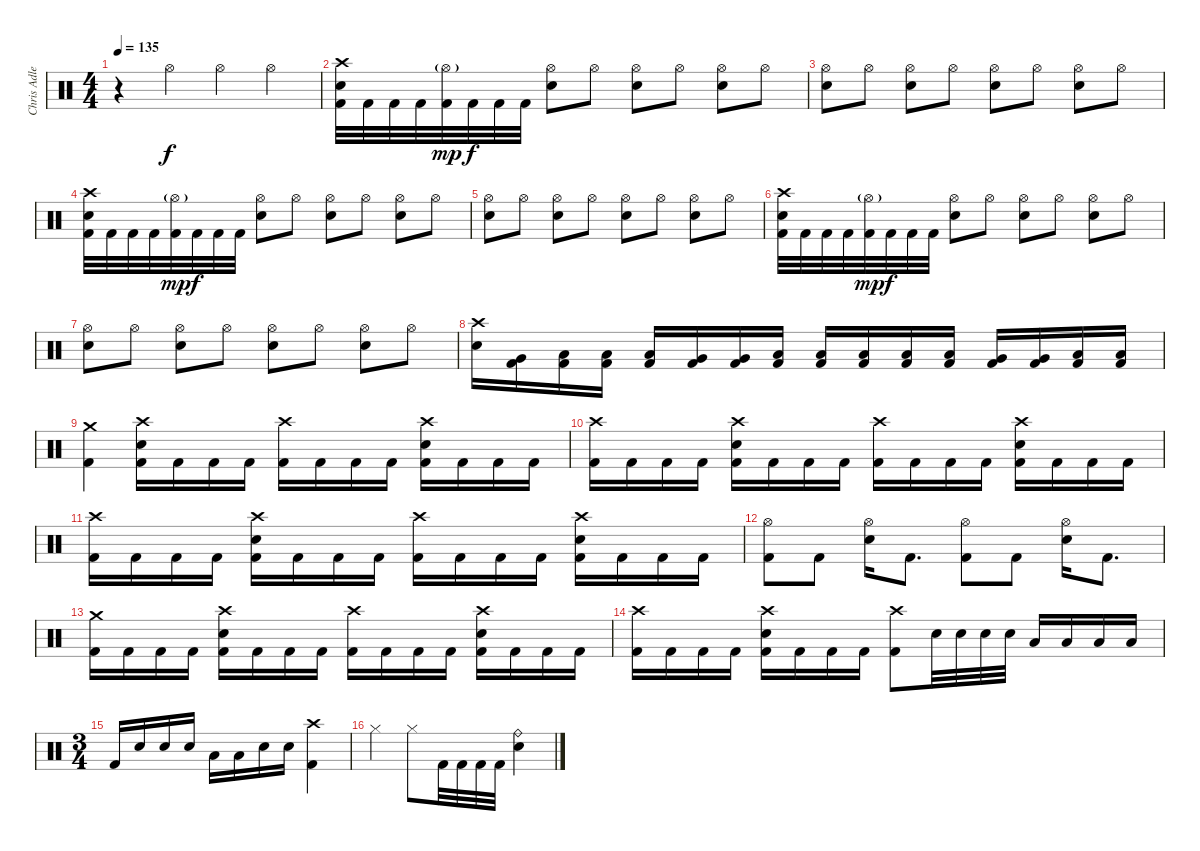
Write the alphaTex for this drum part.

\track ("Chris Adler Drums)" "Chris Adle") {instrument percussion}
\staff {score}
\articulation defaults
\ts (4 4)
\tempo 135
\clef neutral
\ks c
r.4{dy f} "Hi-Hat (open)".4 "Hi-Hat (open)".4 "Hi-Hat (open)".4 |
("Crash high (hit)" "Snare (hit) 2" "Kick (hit) 2").32 "Kick (hit) 2".32 "Kick (hit) 2".32 "Kick (hit) 2".32 ("Hi-Hat (open)"{g} "Kick (hit) 2").32{dy mp} "Kick (hit) 2".32{dy f} "Kick (hit) 2".32 "Kick (hit) 2".32 ("Hi-Hat (open)" "Snare (hit) 2").8 "Hi-Hat (open)".8 ("Hi-Hat (open)" "Snare (hit) 2").8 "Hi-Hat (open)".8 ("Hi-Hat (open)" "Snare (hit) 2").8 "Hi-Hat (open)".8 |
("Hi-Hat (open)" "Snare (hit) 2").8 "Hi-Hat (open)".8 ("Hi-Hat (open)" "Snare (hit) 2").8 "Hi-Hat (open)".8 ("Hi-Hat (open)" "Snare (hit) 2").8 "Hi-Hat (open)".8 ("Hi-Hat (open)" "Snare (hit) 2").8 "Hi-Hat (open)".8 |
("Crash high (hit)" "Snare (hit) 2" "Kick (hit) 2").32 "Kick (hit) 2".32 "Kick (hit) 2".32 "Kick (hit) 2".32 ("Hi-Hat (open)"{g} "Kick (hit) 2").32{dy mp} "Kick (hit) 2".32{dy f} "Kick (hit) 2".32 "Kick (hit) 2".32 ("Hi-Hat (open)" "Snare (hit) 2").8 "Hi-Hat (open)".8 ("Hi-Hat (open)" "Snare (hit) 2").8 "Hi-Hat (open)".8 ("Hi-Hat (open)" "Snare (hit) 2").8 "Hi-Hat (open)".8 |
("Hi-Hat (open)" "Snare (hit) 2").8 "Hi-Hat (open)".8 ("Hi-Hat (open)" "Snare (hit) 2").8 "Hi-Hat (open)".8 ("Hi-Hat (open)" "Snare (hit) 2").8 "Hi-Hat (open)".8 ("Hi-Hat (open)" "Snare (hit) 2").8 "Hi-Hat (open)".8 |
("Crash high (hit)" "Snare (hit) 2" "Kick (hit) 2").32 "Kick (hit) 2".32 "Kick (hit) 2".32 "Kick (hit) 2".32 ("Hi-Hat (open)"{g} "Kick (hit) 2").32{dy mp} "Kick (hit) 2".32{dy f} "Kick (hit) 2".32 "Kick (hit) 2".32 ("Hi-Hat (open)" "Snare (hit) 2").8 "Hi-Hat (open)".8 ("Hi-Hat (open)" "Snare (hit) 2").8 "Hi-Hat (open)".8 ("Hi-Hat (open)" "Snare (hit) 2").8 "Hi-Hat (open)".8 |
("Hi-Hat (open)" "Snare (hit) 2").8 "Hi-Hat (open)".8 ("Hi-Hat (open)" "Snare (hit) 2").8 "Hi-Hat (open)".8 ("Hi-Hat (open)" "Snare (hit) 2").8 "Hi-Hat (open)".8 ("Hi-Hat (open)" "Snare (hit) 2").8 "Hi-Hat (open)".8 |
("Crash high (hit)" "Snare (hit) 2").16 ("Kick (hit) 2" "Very Low Tom (hit)").16 ("Kick (hit) 2" "Low Floor Tom (hit)").16 ("Kick (hit) 2" "Low Floor Tom (hit)").16 ("Kick (hit) 2" "Low Floor Tom (hit)").16 ("Kick (hit) 2" "Very Low Tom (hit)").16 ("Kick (hit) 2" "Very Low Tom (hit)").16 ("Kick (hit) 2" "Low Floor Tom (hit)").16 ("Kick (hit) 2" "Low Floor Tom (hit)").16 ("Kick (hit) 2" "Low Floor Tom (hit)").16 ("Kick (hit) 2" "Low Floor Tom (hit)").16 ("Kick (hit) 2" "Low Floor Tom (hit)").16 ("Kick (hit) 2" "Very Low Tom (hit)").16 ("Kick (hit) 2" "Very Low Tom (hit)").16 ("Kick (hit) 2" "Low Floor Tom (hit)").16 ("Kick (hit) 2" "Low Floor Tom (hit)").16 |
("Crash medium (hit)" "Kick (hit) 2").4 ("Crash high (hit)" "Kick (hit) 2" "Snare (hit) 2").16 "Kick (hit) 2".16 "Kick (hit) 2".16 "Kick (hit) 2".16 ("Crash high (hit)" "Kick (hit) 2").16 "Kick (hit) 2".16 "Kick (hit) 2".16 "Kick (hit) 2".16 ("Crash high (hit)" "Snare (hit) 2" "Kick (hit) 2").16 "Kick (hit) 2".16 "Kick (hit) 2".16 "Kick (hit) 2".16 |
("Crash high (hit)" "Kick (hit) 2").16 "Kick (hit) 2".16 "Kick (hit) 2".16 "Kick (hit) 2".16 ("Crash high (hit)" "Snare (hit) 2" "Kick (hit) 2").16 "Kick (hit) 2".16 "Kick (hit) 2".16 "Kick (hit) 2".16 ("Crash high (hit)" "Kick (hit) 2").16 "Kick (hit) 2".16 "Kick (hit) 2".16 "Kick (hit) 2".16 ("Crash high (hit)" "Snare (hit) 2" "Kick (hit) 2").16 "Kick (hit) 2".16 "Kick (hit) 2".16 "Kick (hit) 2".16 |
("Crash high (hit)" "Kick (hit) 2").16 "Kick (hit) 2".16 "Kick (hit) 2".16 "Kick (hit) 2".16 ("Crash high (hit)" "Snare (hit) 2" "Kick (hit) 2").16 "Kick (hit) 2".16 "Kick (hit) 2".16 "Kick (hit) 2".16 ("Crash high (hit)" "Kick (hit) 2").16 "Kick (hit) 2".16 "Kick (hit) 2".16 "Kick (hit) 2".16 ("Crash high (hit)" "Snare (hit) 2" "Kick (hit) 2").16 "Kick (hit) 2".16 "Kick (hit) 2".16 "Kick (hit) 2".16 |
("Hi-Hat (open)" "Kick (hit) 2").8 "Kick (hit) 2".8 ("Hi-Hat (open)" "Snare (hit) 2").16 "Kick (hit) 2".8{d} ("Hi-Hat (open)" "Kick (hit) 2").8 "Kick (hit) 2".8 ("Hi-Hat (open)" "Snare (hit) 2").16 "Kick (hit) 2".8{d} |
("Crash medium (hit)" "Kick (hit) 2").16 "Kick (hit) 2".16 "Kick (hit) 2".16 "Kick (hit) 2".16 ("Crash high (hit)" "Snare (hit) 2" "Kick (hit) 2").16 "Kick (hit) 2".16 "Kick (hit) 2".16 "Kick (hit) 2".16 ("Crash high (hit)" "Kick (hit) 2").16 "Kick (hit) 2".16 "Kick (hit) 2".16 "Kick (hit) 2".16 ("Crash high (hit)" "Snare (hit) 2" "Kick (hit) 2").16 "Kick (hit) 2".16 "Kick (hit) 2".16 "Kick (hit) 2".16 |
("Crash high (hit)" "Kick (hit) 2").16 "Kick (hit) 2".16 "Kick (hit) 2".16 "Kick (hit) 2".16 ("Crash high (hit)" "Snare (hit) 2" "Kick (hit) 2").16 "Kick (hit) 2".16 "Kick (hit) 2".16 "Kick (hit) 2".16 ("Crash high (hit)" "Kick (hit) 2").8 "Snare (hit) 2".32 "Snare (hit) 2".32 "Snare (hit) 2".32 "Snare (hit) 2".32 "Low Tom (hit)".16 "Low Tom (hit)".16 "Low Tom (hit)".16 "Low Tom (hit)".16 |
\ts (3 4)
"Kick (hit) 2".16 "Snare (hit) 2".16 "Snare (hit) 2".16 "Snare (hit) 2".16 "Low Tom (hit)".16 "Low Tom (hit)".16 "Snare (hit) 2".16 "Snare (hit) 2".16 ("Crash high (hit)" "Kick (hit) 2").4 |
"Hi-Hat (closed)".4 "Hi-Hat (closed)".8 "Kick (hit) 2".32 "Kick (hit) 2".32 "Kick (hit) 2".32 "Kick (hit) 2".32 ("Snare (hit) 2" "Ride (bell)").4
